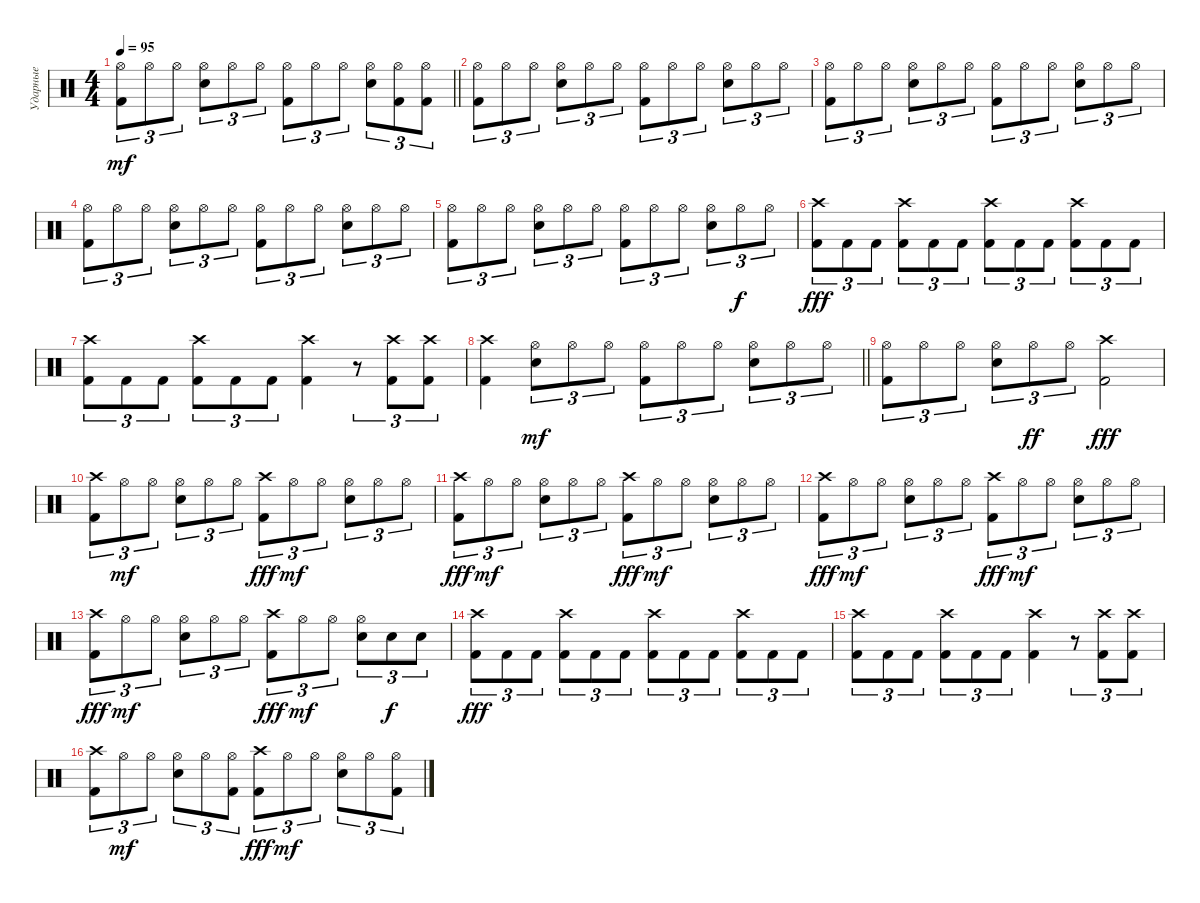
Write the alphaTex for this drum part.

\track ("Ударные" "Ударные") {instrument percussion}
\staff
\articulation defaults
\ts (4 4)
\tempo 95
\clef neutral
\barLineRight lightlight
\ks c
("Kick (hit) 2" "Hi-Hat (open)").8{tu (3 2) dy mf} "Hi-Hat (open)".8{tu (3 2)} "Hi-Hat (open)".8{tu (3 2)} ("Snare (hit) 2" "Hi-Hat (open)").8{tu (3 2)} "Hi-Hat (open)".8{tu (3 2)} "Hi-Hat (open)".8{tu (3 2)} ("Kick (hit) 2" "Hi-Hat (open)").8{tu (3 2)} "Hi-Hat (open)".8{tu (3 2)} "Hi-Hat (open)".8{tu (3 2)} ("Snare (hit) 2" "Hi-Hat (open)").8{tu (3 2)} ("Kick (hit) 2" "Hi-Hat (open)").8{tu (3 2)} ("Kick (hit) 2" "Hi-Hat (open)").8{tu (3 2)} |
("Kick (hit) 2" "Hi-Hat (open)").8{tu (3 2)} "Hi-Hat (open)".8{tu (3 2)} "Hi-Hat (open)".8{tu (3 2)} ("Snare (hit) 2" "Hi-Hat (open)").8{tu (3 2)} "Hi-Hat (open)".8{tu (3 2)} "Hi-Hat (open)".8{tu (3 2)} ("Kick (hit) 2" "Hi-Hat (open)").8{tu (3 2)} "Hi-Hat (open)".8{tu (3 2)} "Hi-Hat (open)".8{tu (3 2)} ("Snare (hit) 2" "Hi-Hat (open)").8{tu (3 2)} "Hi-Hat (open)".8{tu (3 2)} "Hi-Hat (open)".8{tu (3 2)} |
("Kick (hit) 2" "Hi-Hat (open)").8{tu (3 2)} "Hi-Hat (open)".8{tu (3 2)} "Hi-Hat (open)".8{tu (3 2)} ("Snare (hit) 2" "Hi-Hat (open)").8{tu (3 2)} "Hi-Hat (open)".8{tu (3 2)} "Hi-Hat (open)".8{tu (3 2)} ("Kick (hit) 2" "Hi-Hat (open)").8{tu (3 2)} "Hi-Hat (open)".8{tu (3 2)} "Hi-Hat (open)".8{tu (3 2)} ("Snare (hit) 2" "Hi-Hat (open)").8{tu (3 2)} "Hi-Hat (open)".8{tu (3 2)} "Hi-Hat (open)".8{tu (3 2)} |
("Kick (hit) 2" "Hi-Hat (open)").8{tu (3 2)} "Hi-Hat (open)".8{tu (3 2)} "Hi-Hat (open)".8{tu (3 2)} ("Snare (hit) 2" "Hi-Hat (open)").8{tu (3 2)} "Hi-Hat (open)".8{tu (3 2)} "Hi-Hat (open)".8{tu (3 2)} ("Kick (hit) 2" "Hi-Hat (open)").8{tu (3 2)} "Hi-Hat (open)".8{tu (3 2)} "Hi-Hat (open)".8{tu (3 2)} ("Snare (hit) 2" "Hi-Hat (open)").8{tu (3 2)} "Hi-Hat (open)".8{tu (3 2)} "Hi-Hat (open)".8{tu (3 2)} |
("Kick (hit) 2" "Hi-Hat (open)").8{tu (3 2)} "Hi-Hat (open)".8{tu (3 2)} "Hi-Hat (open)".8{tu (3 2)} ("Snare (hit) 2" "Hi-Hat (open)").8{tu (3 2)} "Hi-Hat (open)".8{tu (3 2)} "Hi-Hat (open)".8{tu (3 2)} ("Kick (hit) 2" "Hi-Hat (open)").8{tu (3 2)} "Hi-Hat (open)".8{tu (3 2)} "Hi-Hat (open)".8{tu (3 2)} ("Snare (hit) 2" "Hi-Hat (open)").8{tu (3 2)} "Hi-Hat (open)".8{tu (3 2) dy f} "Hi-Hat (open)".8{tu (3 2)} |
("Kick (hit) 2" "Crash high (hit)").8{tu (3 2) dy fff} "Kick (hit) 2".8{tu (3 2)} "Kick (hit) 2".8{tu (3 2)} ("Kick (hit) 2" "Crash high (hit)").8{tu (3 2)} "Kick (hit) 2".8{tu (3 2)} "Kick (hit) 2".8{tu (3 2)} ("Kick (hit) 2" "Crash high (hit)").8{tu (3 2)} "Kick (hit) 2".8{tu (3 2)} "Kick (hit) 2".8{tu (3 2)} ("Kick (hit) 2" "Crash high (hit)").8{tu (3 2)} "Kick (hit) 2".8{tu (3 2)} "Kick (hit) 2".8{tu (3 2)} |
("Kick (hit) 2" "Crash high (hit)").8{tu (3 2)} "Kick (hit) 2".8{tu (3 2)} "Kick (hit) 2".8{tu (3 2)} ("Kick (hit) 2" "Crash high (hit)").8{tu (3 2)} "Kick (hit) 2".8{tu (3 2)} "Kick (hit) 2".8{tu (3 2)} ("Kick (hit) 2" "Crash high (hit)").4 r.8{tu (3 2)} ("Kick (hit) 2" "Crash high (hit)").8{tu (3 2)} ("Kick (hit) 2" "Crash high (hit)").8{tu (3 2)} |
\barLineRight lightlight
("Kick (hit) 2" "Crash high (hit)").4 ("Snare (hit) 2" "Hi-Hat (open)").8{tu (3 2) dy mf} "Hi-Hat (open)".8{tu (3 2)} "Hi-Hat (open)".8{tu (3 2)} ("Kick (hit) 2" "Hi-Hat (open)").8{tu (3 2)} "Hi-Hat (open)".8{tu (3 2)} "Hi-Hat (open)".8{tu (3 2)} ("Snare (hit) 2" "Hi-Hat (open)").8{tu (3 2)} "Hi-Hat (open)".8{tu (3 2)} "Hi-Hat (open)".8{tu (3 2)} |
("Kick (hit) 2" "Hi-Hat (open)").8{tu (3 2)} "Hi-Hat (open)".8{tu (3 2)} "Hi-Hat (open)".8{tu (3 2)} ("Snare (hit) 2" "Hi-Hat (open)").8{tu (3 2)} "Hi-Hat (open)".8{tu (3 2) dy ff} "Hi-Hat (open)".8{tu (3 2)} ("Kick (hit) 2" "Crash high (hit)").2{dy fff} |
("Kick (hit) 2" "Crash high (hit)").8{tu (3 2)} "Hi-Hat (open)".8{tu (3 2) dy mf} "Hi-Hat (open)".8{tu (3 2)} ("Snare (hit) 2" "Hi-Hat (open)").8{tu (3 2)} "Hi-Hat (open)".8{tu (3 2)} "Hi-Hat (open)".8{tu (3 2)} ("Kick (hit) 2" "Crash high (hit)").8{tu (3 2) dy fff} "Hi-Hat (open)".8{tu (3 2) dy mf} "Hi-Hat (open)".8{tu (3 2)} ("Snare (hit) 2" "Hi-Hat (open)").8{tu (3 2)} "Hi-Hat (open)".8{tu (3 2)} "Hi-Hat (open)".8{tu (3 2)} |
("Kick (hit) 2" "Crash high (hit)").8{tu (3 2) dy fff} "Hi-Hat (open)".8{tu (3 2) dy mf} "Hi-Hat (open)".8{tu (3 2)} ("Snare (hit) 2" "Hi-Hat (open)").8{tu (3 2)} "Hi-Hat (open)".8{tu (3 2)} "Hi-Hat (open)".8{tu (3 2)} ("Kick (hit) 2" "Crash high (hit)").8{tu (3 2) dy fff} "Hi-Hat (open)".8{tu (3 2) dy mf} "Hi-Hat (open)".8{tu (3 2)} ("Snare (hit) 2" "Hi-Hat (open)").8{tu (3 2)} "Hi-Hat (open)".8{tu (3 2)} "Hi-Hat (open)".8{tu (3 2)} |
("Kick (hit) 2" "Crash high (hit)").8{tu (3 2) dy fff} "Hi-Hat (open)".8{tu (3 2) dy mf} "Hi-Hat (open)".8{tu (3 2)} ("Snare (hit) 2" "Hi-Hat (open)").8{tu (3 2)} "Hi-Hat (open)".8{tu (3 2)} "Hi-Hat (open)".8{tu (3 2)} ("Kick (hit) 2" "Crash high (hit)").8{tu (3 2) dy fff} "Hi-Hat (open)".8{tu (3 2) dy mf} "Hi-Hat (open)".8{tu (3 2)} ("Snare (hit) 2" "Hi-Hat (open)").8{tu (3 2)} "Hi-Hat (open)".8{tu (3 2)} "Hi-Hat (open)".8{tu (3 2)} |
("Kick (hit) 2" "Crash high (hit)").8{tu (3 2) dy fff} "Hi-Hat (open)".8{tu (3 2) dy mf} "Hi-Hat (open)".8{tu (3 2)} ("Snare (hit) 2" "Hi-Hat (open)").8{tu (3 2)} "Hi-Hat (open)".8{tu (3 2)} "Hi-Hat (open)".8{tu (3 2)} ("Kick (hit) 2" "Crash high (hit)").8{tu (3 2) dy fff} "Hi-Hat (open)".8{tu (3 2) dy mf} "Hi-Hat (open)".8{tu (3 2)} ("Snare (hit) 2" "Hi-Hat (open)").8{tu (3 2)} "Snare (hit) 2".8{tu (3 2) dy f} "Snare (hit) 2".8{tu (3 2)} |
("Kick (hit) 2" "Crash high (hit)").8{tu (3 2) dy fff} "Kick (hit) 2".8{tu (3 2)} "Kick (hit) 2".8{tu (3 2)} ("Kick (hit) 2" "Crash high (hit)").8{tu (3 2)} "Kick (hit) 2".8{tu (3 2)} "Kick (hit) 2".8{tu (3 2)} ("Kick (hit) 2" "Crash high (hit)").8{tu (3 2)} "Kick (hit) 2".8{tu (3 2)} "Kick (hit) 2".8{tu (3 2)} ("Kick (hit) 2" "Crash high (hit)").8{tu (3 2)} "Kick (hit) 2".8{tu (3 2)} "Kick (hit) 2".8{tu (3 2)} |
("Kick (hit) 2" "Crash high (hit)").8{tu (3 2)} "Kick (hit) 2".8{tu (3 2)} "Kick (hit) 2".8{tu (3 2)} ("Kick (hit) 2" "Crash high (hit)").8{tu (3 2)} "Kick (hit) 2".8{tu (3 2)} "Kick (hit) 2".8{tu (3 2)} ("Kick (hit) 2" "Crash high (hit)").4 r.8{tu (3 2)} ("Kick (hit) 2" "Crash high (hit)").8{tu (3 2)} ("Kick (hit) 2" "Crash high (hit)").8{tu (3 2)} |
("Kick (hit) 2" "Crash high (hit)").8{tu (3 2)} "Hi-Hat (open)".8{tu (3 2) dy mf} "Hi-Hat (open)".8{tu (3 2)} ("Snare (hit) 2" "Hi-Hat (open)").8{tu (3 2)} "Hi-Hat (open)".8{tu (3 2)} ("Kick (hit) 2" "Hi-Hat (open)").8{tu (3 2)} ("Kick (hit) 2" "Crash high (hit)").8{tu (3 2) dy fff} "Hi-Hat (open)".8{tu (3 2) dy mf} "Hi-Hat (open)".8{tu (3 2)} ("Snare (hit) 2" "Hi-Hat (open)").8{tu (3 2)} "Hi-Hat (open)".8{tu (3 2)} ("Kick (hit) 2" "Hi-Hat (open)").8{tu (3 2)}
